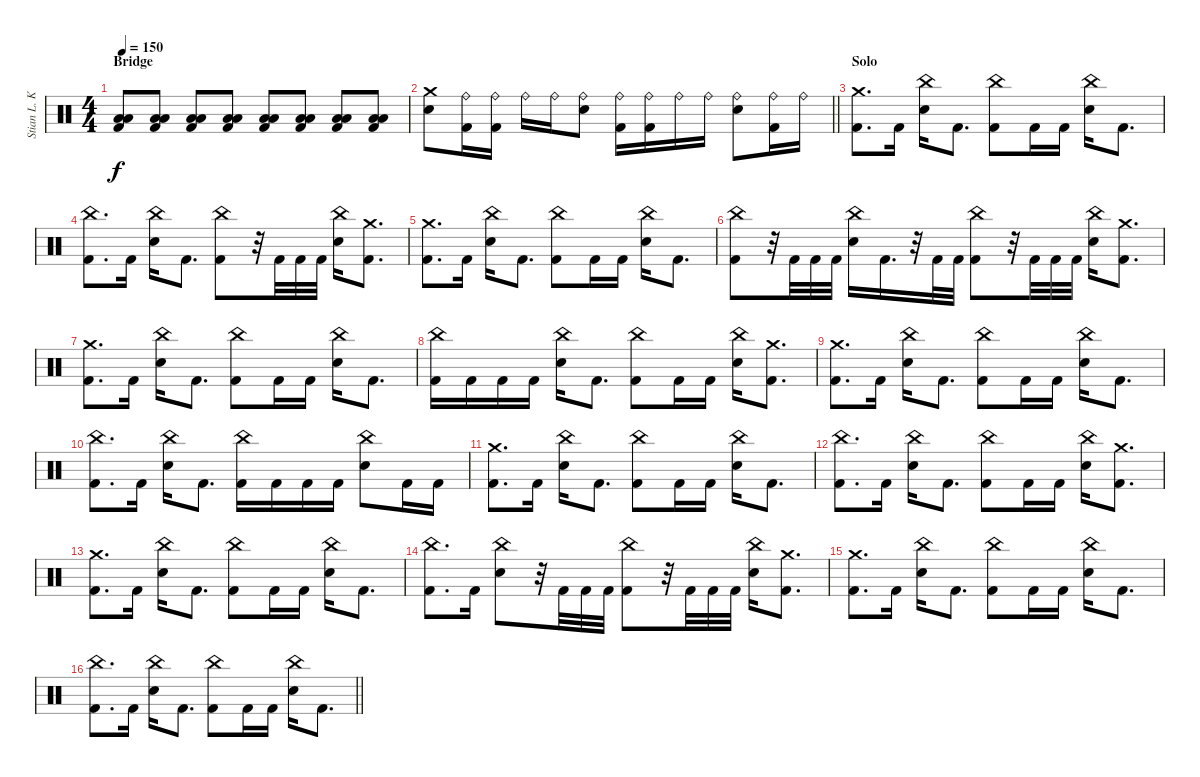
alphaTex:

\track ("Stian L. Kristoffersen" "Stian L. K") {instrument percussion}
\staff {score}
\articulation defaults
\ts (4 4)
\section ("" "Bridge")
\tempo 150
\clef neutral
\ks c
("Low Floor Tom (hit)" "Low Floor Tom (hit)" "Kick (hit) 2").8{dy f} ("Low Floor Tom (hit)" "Low Floor Tom (hit)" "Kick (hit) 2").8 ("Low Floor Tom (hit)" "Low Floor Tom (hit)" "Kick (hit) 2").8 ("Low Floor Tom (hit)" "Low Floor Tom (hit)" "Kick (hit) 2").8 ("Low Floor Tom (hit)" "Low Floor Tom (hit)" "Kick (hit) 2").8 ("Low Floor Tom (hit)" "Low Floor Tom (hit)" "Kick (hit) 2").8 ("Low Floor Tom (hit)" "Low Floor Tom (hit)" "Kick (hit) 2").8 ("Low Floor Tom (hit)" "Low Floor Tom (hit)" "Kick (hit) 2").8 |
\barLineRight lightlight
("Crash medium (hit)" "Electric Snare (hit)").8 ("Ride (bell)" "Kick (hit) 2").16 ("Ride (bell)" "Kick (hit) 2").16 "Ride (bell)".16 "Ride (bell)".16 ("Ride (bell)" "Electric Snare (hit)").8 ("Ride (bell)" "Kick (hit) 2").16 ("Ride (bell)" "Kick (hit) 2").16 "Ride (bell)".16 "Ride (bell)".16 ("Ride (bell)" "Electric Snare (hit)").8 ("Ride (bell)" "Kick (hit) 2").16 "Ride (bell)".16 |
\section ("" "Solo")
("Crash medium (hit)" "Kick (hit) 2").8{d} "Kick (hit) 2".16 ("China (hit)" "Electric Snare (hit)").16 "Kick (hit) 2".8{d} ("China (hit)" "Kick (hit) 2").8 "Kick (hit) 2".16 "Kick (hit) 2".16 ("China (hit)" "Electric Snare (hit)").16 "Kick (hit) 2".8{d} |
("China (hit)" "Kick (hit) 2").8{d} "Kick (hit) 2".16 ("China (hit)" "Electric Snare (hit)").16 "Kick (hit) 2".8{d} ("China (hit)" "Kick (hit) 2").8 r.32 "Kick (hit) 2".32 "Kick (hit) 2".32 "Kick (hit) 2".32 ("China (hit)" "Electric Snare (hit)").16 ("Crash medium (hit)" "Kick (hit) 2").8{d} |
("Crash medium (hit)" "Kick (hit) 2").8{d} "Kick (hit) 2".16 ("China (hit)" "Electric Snare (hit)").16 "Kick (hit) 2".8{d} ("China (hit)" "Kick (hit) 2").8 "Kick (hit) 2".16 "Kick (hit) 2".16 ("China (hit)" "Electric Snare (hit)").16 "Kick (hit) 2".8{d} |
("China (hit)" "Kick (hit) 2").8 r.32 "Kick (hit) 2".32 "Kick (hit) 2".32 "Kick (hit) 2".32 ("China (hit)" "Electric Snare (hit)").16 "Kick (hit) 2".16{d} r.32 "Kick (hit) 2".32 "Kick (hit) 2".32 ("China (hit)" "Kick (hit) 2").8 r.32 "Kick (hit) 2".32 "Kick (hit) 2".32 "Kick (hit) 2".32 ("China (hit)" "Electric Snare (hit)").16 ("Crash medium (hit)" "Kick (hit) 2").8{d} |
("Crash medium (hit)" "Kick (hit) 2").8{d} "Kick (hit) 2".16 ("China (hit)" "Electric Snare (hit)").16 "Kick (hit) 2".8{d} ("China (hit)" "Kick (hit) 2").8 "Kick (hit) 2".16 "Kick (hit) 2".16 ("China (hit)" "Electric Snare (hit)").16 "Kick (hit) 2".8{d} |
("China (hit)" "Kick (hit) 2").16 "Kick (hit) 2".16 "Kick (hit) 2".16 "Kick (hit) 2".16 ("China (hit)" "Electric Snare (hit)").16 "Kick (hit) 2".8{d} ("China (hit)" "Kick (hit) 2").8 "Kick (hit) 2".16 "Kick (hit) 2".16 ("China (hit)" "Electric Snare (hit)").16 ("Crash medium (hit)" "Kick (hit) 2").8{d} |
("Crash medium (hit)" "Kick (hit) 2").8{d} "Kick (hit) 2".16 ("China (hit)" "Electric Snare (hit)").16 "Kick (hit) 2".8{d} ("China (hit)" "Kick (hit) 2").8 "Kick (hit) 2".16 "Kick (hit) 2".16 ("China (hit)" "Electric Snare (hit)").16 "Kick (hit) 2".8{d} |
("China (hit)" "Kick (hit) 2").8{d} "Kick (hit) 2".16 ("China (hit)" "Electric Snare (hit)").16 "Kick (hit) 2".8{d} ("China (hit)" "Kick (hit) 2").16 "Kick (hit) 2".16 "Kick (hit) 2".16 "Kick (hit) 2".16 ("China (hit)" "Electric Snare (hit)").8 "Kick (hit) 2".16 "Kick (hit) 2".16 |
("Crash medium (hit)" "Kick (hit) 2").8{d} "Kick (hit) 2".16 ("China (hit)" "Electric Snare (hit)").16 "Kick (hit) 2".8{d} ("China (hit)" "Kick (hit) 2").8 "Kick (hit) 2".16 "Kick (hit) 2".16 ("China (hit)" "Electric Snare (hit)").16 "Kick (hit) 2".8{d} |
("China (hit)" "Kick (hit) 2").8{d} "Kick (hit) 2".16 ("China (hit)" "Electric Snare (hit)").16 "Kick (hit) 2".8{d} ("China (hit)" "Kick (hit) 2").8 "Kick (hit) 2".16 "Kick (hit) 2".16 ("China (hit)" "Electric Snare (hit)").16 ("Crash medium (hit)" "Kick (hit) 2").8{d} |
("Crash medium (hit)" "Kick (hit) 2").8{d} "Kick (hit) 2".16 ("China (hit)" "Electric Snare (hit)").16 "Kick (hit) 2".8{d} ("China (hit)" "Kick (hit) 2").8 "Kick (hit) 2".16 "Kick (hit) 2".16 ("China (hit)" "Electric Snare (hit)").16 "Kick (hit) 2".8{d} |
("China (hit)" "Kick (hit) 2").8{d} "Kick (hit) 2".16 ("China (hit)" "Electric Snare (hit)").8 r.32 "Kick (hit) 2".32 "Kick (hit) 2".32 "Kick (hit) 2".32 ("China (hit)" "Kick (hit) 2").8 r.32 "Kick (hit) 2".32 "Kick (hit) 2".32 "Kick (hit) 2".32 ("China (hit)" "Electric Snare (hit)").16 ("Crash medium (hit)" "Kick (hit) 2").8{d} |
("Crash medium (hit)" "Kick (hit) 2").8{d} "Kick (hit) 2".16 ("China (hit)" "Electric Snare (hit)").16 "Kick (hit) 2".8{d} ("China (hit)" "Kick (hit) 2").8 "Kick (hit) 2".16 "Kick (hit) 2".16 ("China (hit)" "Electric Snare (hit)").16 "Kick (hit) 2".8{d} |
\barLineRight lightlight
("China (hit)" "Kick (hit) 2").8{d} "Kick (hit) 2".16 ("China (hit)" "Electric Snare (hit)").16 "Kick (hit) 2".8{d} ("China (hit)" "Kick (hit) 2").8 "Kick (hit) 2".16 "Kick (hit) 2".16 ("China (hit)" "Electric Snare (hit)").16 "Kick (hit) 2".8{d}
